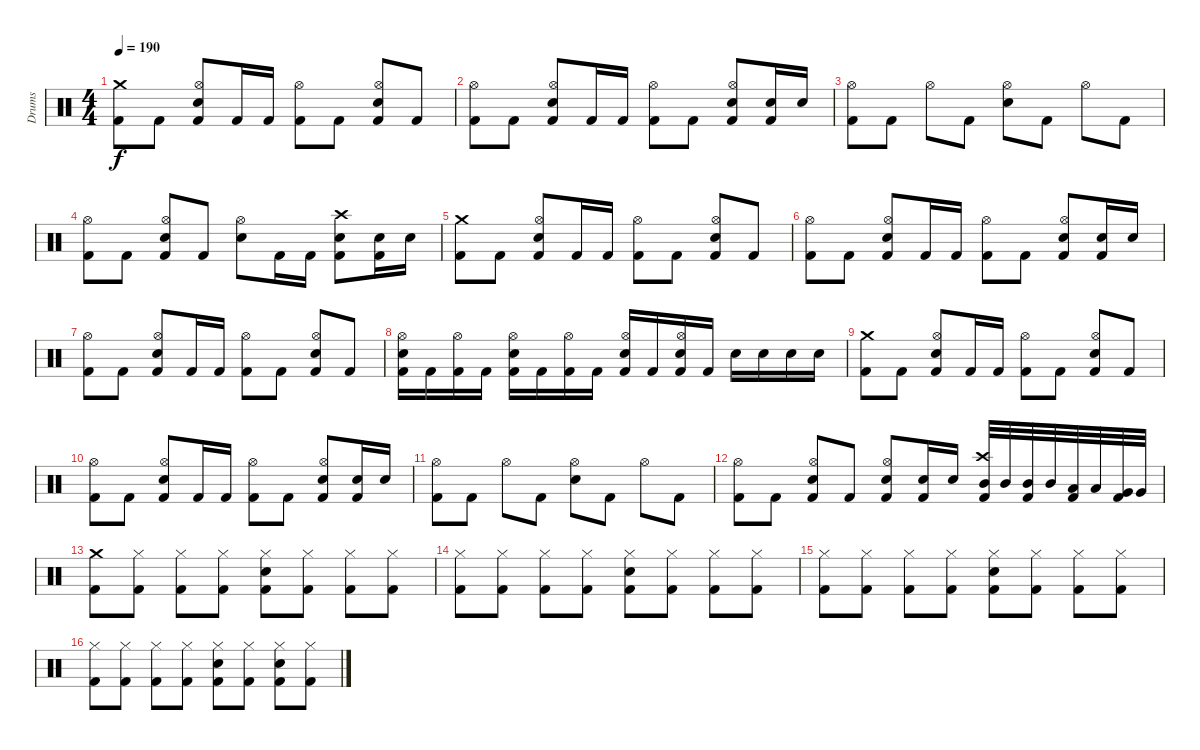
\track ("Drums" "Drums") {instrument percussion}
\staff {score}
\articulation defaults
\ts (4 4)
\tempo 190
\clef neutral
\ks c
("Crash medium (hit)" "Kick (hit) 2").8{dy f} "Kick (hit) 2".8 ("Kick (hit) 2" "Hi-Hat (open)" "Snare (hit) 2").8 "Kick (hit) 2".16 "Kick (hit) 2".16 ("Hi-Hat (open)" "Kick (hit) 2").8 "Kick (hit) 2".8 ("Kick (hit) 2" "Hi-Hat (open)" "Snare (hit) 2").8 "Kick (hit) 2".8 |
("Hi-Hat (open)" "Kick (hit) 2").8 "Kick (hit) 2".8 ("Kick (hit) 2" "Hi-Hat (open)" "Snare (hit) 2").8 "Kick (hit) 2".16 "Kick (hit) 2".16 ("Hi-Hat (open)" "Kick (hit) 2").8 "Kick (hit) 2".8 ("Kick (hit) 2" "Hi-Hat (open)" "Snare (hit) 2").8 ("Kick (hit) 2" "Snare (hit) 2").16 "Snare (hit) 2".16 |
("Hi-Hat (open)" "Kick (hit) 2").8 "Kick (hit) 2".8 "Hi-Hat (open)".8 "Kick (hit) 2".8 ("Hi-Hat (open)" "Snare (hit) 2").8 "Kick (hit) 2".8 "Hi-Hat (open)".8 "Kick (hit) 2".8 |
("Hi-Hat (open)" "Kick (hit) 2").8 "Kick (hit) 2".8 ("Kick (hit) 2" "Hi-Hat (open)" "Snare (hit) 2").8 "Kick (hit) 2".8 ("Hi-Hat (open)" "Snare (hit) 2").8 "Kick (hit) 2".16 "Kick (hit) 2".16 ("Kick (hit) 2" "Crash high (hit)" "Snare (hit) 2").8 ("Kick (hit) 2" "Snare (hit) 2").16 "Snare (hit) 2".16 |
("Crash medium (hit)" "Kick (hit) 2").8 "Kick (hit) 2".8 ("Kick (hit) 2" "Hi-Hat (open)" "Snare (hit) 2").8 "Kick (hit) 2".16 "Kick (hit) 2".16 ("Hi-Hat (open)" "Kick (hit) 2").8 "Kick (hit) 2".8 ("Kick (hit) 2" "Hi-Hat (open)" "Snare (hit) 2").8 "Kick (hit) 2".8 |
("Hi-Hat (open)" "Kick (hit) 2").8 "Kick (hit) 2".8 ("Kick (hit) 2" "Hi-Hat (open)" "Snare (hit) 2").8 "Kick (hit) 2".16 "Kick (hit) 2".16 ("Hi-Hat (open)" "Kick (hit) 2").8 "Kick (hit) 2".8 ("Kick (hit) 2" "Hi-Hat (open)" "Snare (hit) 2").8 ("Kick (hit) 2" "Snare (hit) 2").16 "Snare (hit) 2".16 |
("Hi-Hat (open)" "Kick (hit) 2").8 "Kick (hit) 2".8 ("Kick (hit) 2" "Hi-Hat (open)" "Snare (hit) 2").8 "Kick (hit) 2".16 "Kick (hit) 2".16 ("Hi-Hat (open)" "Kick (hit) 2").8 "Kick (hit) 2".8 ("Kick (hit) 2" "Hi-Hat (open)" "Snare (hit) 2").8 "Kick (hit) 2".8 |
("Kick (hit) 2" "Hi-Hat (open)" "Snare (hit) 2").16 "Kick (hit) 2".16 ("Hi-Hat (open)" "Kick (hit) 2").16 "Kick (hit) 2".16 ("Kick (hit) 2" "Hi-Hat (open)" "Snare (hit) 2").16 "Kick (hit) 2".16 ("Hi-Hat (open)" "Kick (hit) 2").16 "Kick (hit) 2".16 ("Kick (hit) 2" "Hi-Hat (open)" "Snare (hit) 2").16 "Kick (hit) 2".16 ("Kick (hit) 2" "Hi-Hat (open)" "Snare (hit) 2").16 "Kick (hit) 2".16 "Snare (hit) 2".16 "Snare (hit) 2".16 "Snare (hit) 2".16 "Snare (hit) 2".16 |
("Crash medium (hit)" "Kick (hit) 2").8 "Kick (hit) 2".8 ("Kick (hit) 2" "Hi-Hat (open)" "Snare (hit) 2").8 "Kick (hit) 2".16 "Kick (hit) 2".16 ("Hi-Hat (open)" "Kick (hit) 2").8 "Kick (hit) 2".8 ("Kick (hit) 2" "Hi-Hat (open)" "Snare (hit) 2").8 "Kick (hit) 2".8 |
("Hi-Hat (open)" "Kick (hit) 2").8 "Kick (hit) 2".8 ("Kick (hit) 2" "Hi-Hat (open)" "Snare (hit) 2").8 "Kick (hit) 2".16 "Kick (hit) 2".16 ("Hi-Hat (open)" "Kick (hit) 2").8 "Kick (hit) 2".8 ("Kick (hit) 2" "Hi-Hat (open)" "Snare (hit) 2").8 ("Kick (hit) 2" "Snare (hit) 2").16 "Snare (hit) 2".16 |
("Hi-Hat (open)" "Kick (hit) 2").8 "Kick (hit) 2".8 "Hi-Hat (open)".8 "Kick (hit) 2".8 ("Hi-Hat (open)" "Snare (hit) 2").8 "Kick (hit) 2".8 "Hi-Hat (open)".8 "Kick (hit) 2".8 |
("Hi-Hat (open)" "Kick (hit) 2").8 "Kick (hit) 2".8 ("Kick (hit) 2" "Hi-Hat (open)" "Snare (hit) 2").8 "Kick (hit) 2".8 ("Kick (hit) 2" "Hi-Hat (open)" "Snare (hit) 2").8 ("Kick (hit) 2" "Snare (hit) 2").16 "Snare (hit) 2".16 ("Kick (hit) 2" "Crash high (hit)" "Mid Tom (hit)").32 "Mid Tom (hit)".32 ("Kick (hit) 2" "Mid Tom (hit)").32 "Mid Tom (hit)".32 ("Kick (hit) 2" "Low Tom (hit)").32 "Low Tom (hit)".32 ("Kick (hit) 2" "Very Low Tom (hit)").32 "Very Low Tom (hit)".32 |
("Crash medium (hit)" "Kick (hit) 2").8 ("Hi-Hat (closed)" "Kick (hit) 2").8 ("Hi-Hat (closed)" "Kick (hit) 2").8 ("Hi-Hat (closed)" "Kick (hit) 2").8 ("Kick (hit) 2" "Hi-Hat (closed)" "Snare (hit) 2").8 ("Hi-Hat (closed)" "Kick (hit) 2").8 ("Hi-Hat (closed)" "Kick (hit) 2").8 ("Hi-Hat (closed)" "Kick (hit) 2").8 |
("Hi-Hat (closed)" "Kick (hit) 2").8 ("Hi-Hat (closed)" "Kick (hit) 2").8 ("Hi-Hat (closed)" "Kick (hit) 2").8 ("Hi-Hat (closed)" "Kick (hit) 2").8 ("Kick (hit) 2" "Hi-Hat (closed)" "Snare (hit) 2").8 ("Hi-Hat (closed)" "Kick (hit) 2").8 ("Hi-Hat (closed)" "Kick (hit) 2").8 ("Hi-Hat (closed)" "Kick (hit) 2").8 |
("Hi-Hat (closed)" "Kick (hit) 2").8 ("Hi-Hat (closed)" "Kick (hit) 2").8 ("Hi-Hat (closed)" "Kick (hit) 2").8 ("Hi-Hat (closed)" "Kick (hit) 2").8 ("Kick (hit) 2" "Hi-Hat (closed)" "Snare (hit) 2").8 ("Hi-Hat (closed)" "Kick (hit) 2").8 ("Hi-Hat (closed)" "Kick (hit) 2").8 ("Hi-Hat (closed)" "Kick (hit) 2").8 |
("Hi-Hat (closed)" "Kick (hit) 2").8 ("Hi-Hat (closed)" "Kick (hit) 2").8 ("Hi-Hat (closed)" "Kick (hit) 2").8 ("Hi-Hat (closed)" "Kick (hit) 2").8 ("Kick (hit) 2" "Hi-Hat (closed)" "Snare (hit) 2").8 ("Hi-Hat (closed)" "Kick (hit) 2").8 ("Kick (hit) 2" "Hi-Hat (closed)" "Snare (hit) 2").8 ("Hi-Hat (closed)" "Kick (hit) 2").8
